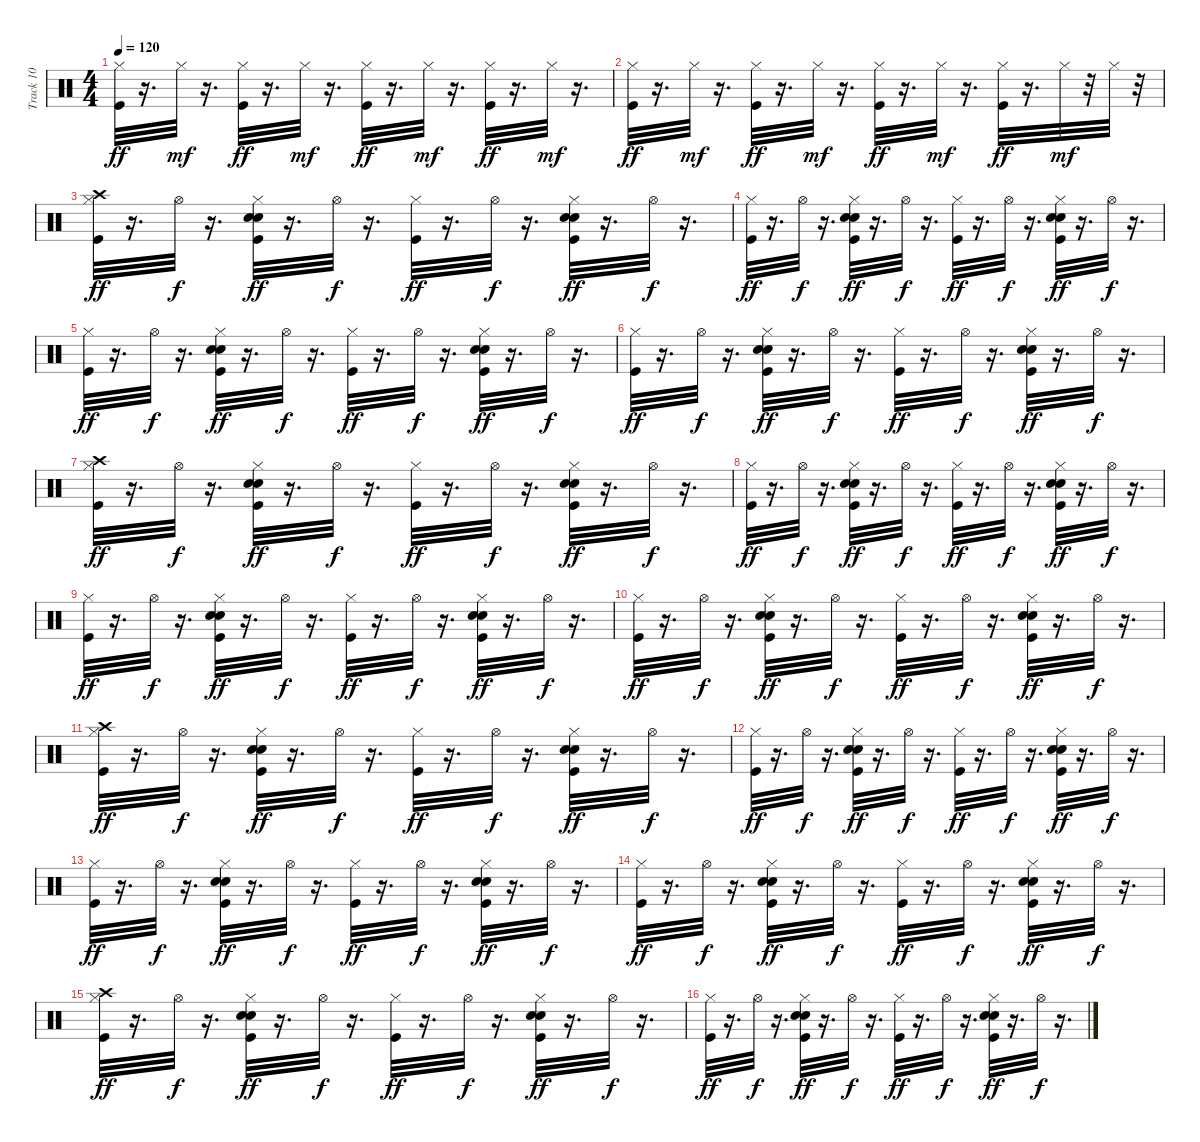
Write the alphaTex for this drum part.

\track ("Track 10" "Track 10") {instrument percussion}
\staff {score}
\articulation defaults
\ts (4 4)
\tempo 120
\clef neutral
\ks c
("Kick (hit)" "Hi-Hat (closed)").32{dy ff} r.16{d} "Hi-Hat (closed)".32{dy mf} r.16{d} ("Kick (hit)" "Hi-Hat (closed)").32{dy ff} r.16{d} "Hi-Hat (closed)".32{dy mf} r.16{d} ("Kick (hit)" "Hi-Hat (closed)").32{dy ff} r.16{d} "Hi-Hat (closed)".32{dy mf} r.16{d} ("Kick (hit)" "Hi-Hat (closed)").32{dy ff} r.16{d} "Hi-Hat (closed)".32{dy mf} r.16{d} |
("Kick (hit)" "Hi-Hat (closed)").32{dy ff} r.16{d} "Hi-Hat (closed)".32{dy mf} r.16{d} ("Kick (hit)" "Hi-Hat (closed)").32{dy ff} r.16{d} "Hi-Hat (closed)".32{dy mf} r.16{d} ("Kick (hit)" "Hi-Hat (closed)").32{dy ff} r.16{d} "Hi-Hat (closed)".32{dy mf} r.16{d} ("Kick (hit)" "Hi-Hat (closed)").32{dy ff} r.16{d} "Hi-Hat (closed)".32{dy mf} r.32 "Hi-Hat (closed)".32 r.32 |
("Kick (hit)" "Hi-Hat (closed)" "Crash high (hit)").32{dy ff} r.16{d} "Hi-Hat (open)".32{dy f} r.16{d} ("Kick (hit)" "Snare (hit) 2" "Hand Clap (hit)" "Hi-Hat (closed)").32{dy ff} r.16{d} "Hi-Hat (open)".32{dy f} r.16{d} ("Kick (hit)" "Hi-Hat (closed)").32{dy ff} r.16{d} "Hi-Hat (open)".32{dy f} r.16{d} ("Kick (hit)" "Snare (hit) 2" "Hand Clap (hit)" "Hi-Hat (closed)").32{dy ff} r.16{d} "Hi-Hat (open)".32{dy f} r.16{d} |
("Kick (hit)" "Hi-Hat (closed)").32{dy ff} r.16{d} "Hi-Hat (open)".32{dy f} r.16{d} ("Kick (hit)" "Snare (hit) 2" "Hand Clap (hit)" "Hi-Hat (closed)").32{dy ff} r.16{d} "Hi-Hat (open)".32{dy f} r.16{d} ("Kick (hit)" "Hi-Hat (closed)").32{dy ff} r.16{d} "Hi-Hat (open)".32{dy f} r.16{d} ("Kick (hit)" "Snare (hit) 2" "Hand Clap (hit)" "Hi-Hat (closed)").32{dy ff} r.16{d} "Hi-Hat (open)".32{dy f} r.16{d} |
("Kick (hit)" "Hi-Hat (closed)").32{dy ff} r.16{d} "Hi-Hat (open)".32{dy f} r.16{d} ("Kick (hit)" "Snare (hit) 2" "Hand Clap (hit)" "Hi-Hat (closed)").32{dy ff} r.16{d} "Hi-Hat (open)".32{dy f} r.16{d} ("Kick (hit)" "Hi-Hat (closed)").32{dy ff} r.16{d} "Hi-Hat (open)".32{dy f} r.16{d} ("Kick (hit)" "Snare (hit) 2" "Hand Clap (hit)" "Hi-Hat (closed)").32{dy ff} r.16{d} "Hi-Hat (open)".32{dy f} r.16{d} |
("Kick (hit)" "Hi-Hat (closed)").32{dy ff} r.16{d} "Hi-Hat (open)".32{dy f} r.16{d} ("Kick (hit)" "Snare (hit) 2" "Hand Clap (hit)" "Hi-Hat (closed)").32{dy ff} r.16{d} "Hi-Hat (open)".32{dy f} r.16{d} ("Kick (hit)" "Hi-Hat (closed)").32{dy ff} r.16{d} "Hi-Hat (open)".32{dy f} r.16{d} ("Kick (hit)" "Snare (hit) 2" "Hand Clap (hit)" "Hi-Hat (closed)").32{dy ff} r.16{d} "Hi-Hat (open)".32{dy f} r.16{d} |
("Kick (hit)" "Hi-Hat (closed)" "Crash high (hit)").32{dy ff} r.16{d} "Hi-Hat (open)".32{dy f} r.16{d} ("Kick (hit)" "Snare (hit) 2" "Hand Clap (hit)" "Hi-Hat (closed)").32{dy ff} r.16{d} "Hi-Hat (open)".32{dy f} r.16{d} ("Kick (hit)" "Hi-Hat (closed)").32{dy ff} r.16{d} "Hi-Hat (open)".32{dy f} r.16{d} ("Kick (hit)" "Snare (hit) 2" "Hand Clap (hit)" "Hi-Hat (closed)").32{dy ff} r.16{d} "Hi-Hat (open)".32{dy f} r.16{d} |
("Kick (hit)" "Hi-Hat (closed)").32{dy ff} r.16{d} "Hi-Hat (open)".32{dy f} r.16{d} ("Kick (hit)" "Snare (hit) 2" "Hand Clap (hit)" "Hi-Hat (closed)").32{dy ff} r.16{d} "Hi-Hat (open)".32{dy f} r.16{d} ("Kick (hit)" "Hi-Hat (closed)").32{dy ff} r.16{d} "Hi-Hat (open)".32{dy f} r.16{d} ("Kick (hit)" "Snare (hit) 2" "Hand Clap (hit)" "Hi-Hat (closed)").32{dy ff} r.16{d} "Hi-Hat (open)".32{dy f} r.16{d} |
("Kick (hit)" "Hi-Hat (closed)").32{dy ff} r.16{d} "Hi-Hat (open)".32{dy f} r.16{d} ("Kick (hit)" "Snare (hit) 2" "Hand Clap (hit)" "Hi-Hat (closed)").32{dy ff} r.16{d} "Hi-Hat (open)".32{dy f} r.16{d} ("Kick (hit)" "Hi-Hat (closed)").32{dy ff} r.16{d} "Hi-Hat (open)".32{dy f} r.16{d} ("Kick (hit)" "Snare (hit) 2" "Hand Clap (hit)" "Hi-Hat (closed)").32{dy ff} r.16{d} "Hi-Hat (open)".32{dy f} r.16{d} |
("Kick (hit)" "Hi-Hat (closed)").32{dy ff} r.16{d} "Hi-Hat (open)".32{dy f} r.16{d} ("Kick (hit)" "Snare (hit) 2" "Hand Clap (hit)" "Hi-Hat (closed)").32{dy ff} r.16{d} "Hi-Hat (open)".32{dy f} r.16{d} ("Kick (hit)" "Hi-Hat (closed)").32{dy ff} r.16{d} "Hi-Hat (open)".32{dy f} r.16{d} ("Kick (hit)" "Snare (hit) 2" "Hand Clap (hit)" "Hi-Hat (closed)").32{dy ff} r.16{d} "Hi-Hat (open)".32{dy f} r.16{d} |
("Kick (hit)" "Hi-Hat (closed)" "Crash high (hit)").32{dy ff} r.16{d} "Hi-Hat (open)".32{dy f} r.16{d} ("Kick (hit)" "Snare (hit) 2" "Hand Clap (hit)" "Hi-Hat (closed)").32{dy ff} r.16{d} "Hi-Hat (open)".32{dy f} r.16{d} ("Kick (hit)" "Hi-Hat (closed)").32{dy ff} r.16{d} "Hi-Hat (open)".32{dy f} r.16{d} ("Kick (hit)" "Snare (hit) 2" "Hand Clap (hit)" "Hi-Hat (closed)").32{dy ff} r.16{d} "Hi-Hat (open)".32{dy f} r.16{d} |
("Kick (hit)" "Hi-Hat (closed)").32{dy ff} r.16{d} "Hi-Hat (open)".32{dy f} r.16{d} ("Kick (hit)" "Snare (hit) 2" "Hand Clap (hit)" "Hi-Hat (closed)").32{dy ff} r.16{d} "Hi-Hat (open)".32{dy f} r.16{d} ("Kick (hit)" "Hi-Hat (closed)").32{dy ff} r.16{d} "Hi-Hat (open)".32{dy f} r.16{d} ("Kick (hit)" "Snare (hit) 2" "Hand Clap (hit)" "Hi-Hat (closed)").32{dy ff} r.16{d} "Hi-Hat (open)".32{dy f} r.16{d} |
("Kick (hit)" "Hi-Hat (closed)").32{dy ff} r.16{d} "Hi-Hat (open)".32{dy f} r.16{d} ("Kick (hit)" "Snare (hit) 2" "Hand Clap (hit)" "Hi-Hat (closed)").32{dy ff} r.16{d} "Hi-Hat (open)".32{dy f} r.16{d} ("Kick (hit)" "Hi-Hat (closed)").32{dy ff} r.16{d} "Hi-Hat (open)".32{dy f} r.16{d} ("Kick (hit)" "Snare (hit) 2" "Hand Clap (hit)" "Hi-Hat (closed)").32{dy ff} r.16{d} "Hi-Hat (open)".32{dy f} r.16{d} |
("Kick (hit)" "Hi-Hat (closed)").32{dy ff} r.16{d} "Hi-Hat (open)".32{dy f} r.16{d} ("Kick (hit)" "Snare (hit) 2" "Hand Clap (hit)" "Hi-Hat (closed)").32{dy ff} r.16{d} "Hi-Hat (open)".32{dy f} r.16{d} ("Kick (hit)" "Hi-Hat (closed)").32{dy ff} r.16{d} "Hi-Hat (open)".32{dy f} r.16{d} ("Kick (hit)" "Snare (hit) 2" "Hand Clap (hit)" "Hi-Hat (closed)").32{dy ff} r.16{d} "Hi-Hat (open)".32{dy f} r.16{d} |
("Kick (hit)" "Hi-Hat (closed)" "Crash high (hit)").32{dy ff} r.16{d} "Hi-Hat (open)".32{dy f} r.16{d} ("Kick (hit)" "Snare (hit) 2" "Hand Clap (hit)" "Hi-Hat (closed)").32{dy ff} r.16{d} "Hi-Hat (open)".32{dy f} r.16{d} ("Kick (hit)" "Hi-Hat (closed)").32{dy ff} r.16{d} "Hi-Hat (open)".32{dy f} r.16{d} ("Kick (hit)" "Snare (hit) 2" "Hand Clap (hit)" "Hi-Hat (closed)").32{dy ff} r.16{d} "Hi-Hat (open)".32{dy f} r.16{d} |
("Kick (hit)" "Hi-Hat (closed)").32{dy ff} r.16{d} "Hi-Hat (open)".32{dy f} r.16{d} ("Kick (hit)" "Snare (hit) 2" "Hand Clap (hit)" "Hi-Hat (closed)").32{dy ff} r.16{d} "Hi-Hat (open)".32{dy f} r.16{d} ("Kick (hit)" "Hi-Hat (closed)").32{dy ff} r.16{d} "Hi-Hat (open)".32{dy f} r.16{d} ("Kick (hit)" "Snare (hit) 2" "Hand Clap (hit)" "Hi-Hat (closed)").32{dy ff} r.16{d} "Hi-Hat (open)".32{dy f} r.16{d}
